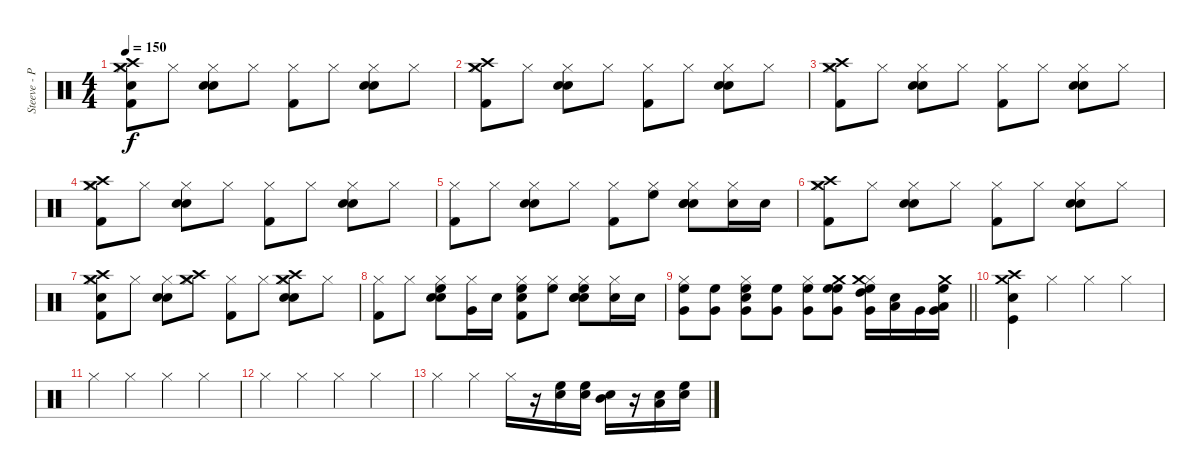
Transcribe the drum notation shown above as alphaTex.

\track ("Steeve - Percussions" "Steeve - P") {instrument percussion}
\staff {score}
\articulation defaults
\ts (4 4)
\tempo 150
\clef neutral
\ks c
("Hi-Hat (closed)" "Kick (hit) 2" "Crash high (hit)" "Snare (hit) 2" "Crash medium (hit)").8{dy f} "Hi-Hat (closed)".8 ("Hi-Hat (closed)" "Snare (hit) 2" "Electric Snare (hit)").8 "Hi-Hat (closed)".8 ("Hi-Hat (closed)" "Kick (hit) 2").8 "Hi-Hat (closed)".8 ("Hi-Hat (closed)" "Snare (hit) 2" "Electric Snare (hit)").8 "Hi-Hat (closed)".8 |
("Hi-Hat (closed)" "Kick (hit) 2" "Crash medium (hit)" "Crash high (hit)").8 "Hi-Hat (closed)".8 ("Hi-Hat (closed)" "Snare (hit) 2" "Electric Snare (hit)").8 "Hi-Hat (closed)".8 ("Hi-Hat (closed)" "Kick (hit) 2").8 "Hi-Hat (closed)".8 ("Hi-Hat (closed)" "Snare (hit) 2" "Electric Snare (hit)").8 "Hi-Hat (closed)".8 |
("Hi-Hat (closed)" "Kick (hit) 2" "Crash medium (hit)" "Crash high (hit)").8 "Hi-Hat (closed)".8 ("Hi-Hat (closed)" "Snare (hit) 2" "Electric Snare (hit)").8 "Hi-Hat (closed)".8 ("Hi-Hat (closed)" "Kick (hit) 2").8 "Hi-Hat (closed)".8 ("Hi-Hat (closed)" "Snare (hit) 2" "Electric Snare (hit)").8 "Hi-Hat (closed)".8 |
("Hi-Hat (closed)" "Kick (hit) 2" "Crash medium (hit)" "Crash high (hit)").8 "Hi-Hat (closed)".8 ("Hi-Hat (closed)" "Snare (hit) 2" "Electric Snare (hit)").8 "Hi-Hat (closed)".8 ("Hi-Hat (closed)" "Kick (hit) 2").8 "Hi-Hat (closed)".8 ("Hi-Hat (closed)" "Snare (hit) 2" "Electric Snare (hit)").8 "Hi-Hat (closed)".8 |
("Hi-Hat (closed)" "Kick (hit) 2").8 "Hi-Hat (closed)".8 ("Hi-Hat (closed)" "Snare (hit) 2" "Electric Snare (hit)").8 "Hi-Hat (closed)".8 ("Hi-Hat (closed)" "Kick (hit) 2").8 ("Hi-Hat (closed)" "High Floor Tom (hit)").8 ("Hi-Hat (closed)" "Snare (hit) 2" "Electric Snare (hit)" "Snare (hit) 2").8 ("Hi-Hat (closed)" "Snare (hit) 2").16 "Snare (hit) 2".16 |
("Hi-Hat (closed)" "Kick (hit) 2" "Crash medium (hit)" "Crash high (hit)").8 "Hi-Hat (closed)".8 ("Hi-Hat (closed)" "Snare (hit) 2" "Electric Snare (hit)").8 "Hi-Hat (closed)".8 ("Hi-Hat (closed)" "Kick (hit) 2").8 "Hi-Hat (closed)".8 ("Hi-Hat (closed)" "Snare (hit) 2" "Electric Snare (hit)").8 "Hi-Hat (closed)".8 |
("Hi-Hat (closed)" "Kick (hit) 2" "Crash high (hit)" "Snare (hit) 2" "Crash medium (hit)").8 "Hi-Hat (closed)".8 ("Hi-Hat (closed)" "Snare (hit) 2" "Electric Snare (hit)").8 ("Hi-Hat (closed)" "Crash high (hit)" "Crash medium (hit)").8 ("Hi-Hat (closed)" "Kick (hit) 2").8 "Hi-Hat (closed)".8 ("Hi-Hat (closed)" "Snare (hit) 2" "Electric Snare (hit)" "Crash high (hit)" "Crash medium (hit)").8 "Hi-Hat (closed)".8 |
("Hi-Hat (closed)" "Kick (hit) 2").8 "Hi-Hat (closed)".8 ("Hi-Hat (closed)" "Snare (hit) 2" "Electric Snare (hit)" "High Floor Tom (hit)").8 ("Hi-Hat (closed)" "Very Low Tom (hit)").16 "Snare (hit) 2".16 ("Hi-Hat (closed)" "Kick (hit) 2" "Snare (hit) 2" "High Floor Tom (hit)").8 ("Hi-Hat (closed)" "High Floor Tom (hit)").8 ("Hi-Hat (closed)" "Snare (hit) 2" "Electric Snare (hit)" "Snare (hit) 2" "High Floor Tom (hit)").8 ("Hi-Hat (closed)" "Snare (hit) 2").16 "Snare (hit) 2".16 |
\barLineRight lightlight
("Hi-Hat (closed)" "High Floor Tom (hit)" "Very Low Tom (hit)").8 ("High Floor Tom (hit)" "Very Low Tom (hit)").8 ("Hi-Hat (closed)" "High Floor Tom (hit)" "Snare (hit) 2" "Very Low Tom (hit)").8 ("High Floor Tom (hit)" "Very Low Tom (hit)").8 ("Hi-Hat (closed)" "High Floor Tom (hit)" "Very Low Tom (hit)").8 ("High Floor Tom (hit)" "High Floor Tom (hit)" "Very Low Tom (hit)" "Crash medium (hit)").8 ("Hi-Hat (closed)" "High Floor Tom (hit)" "High Tom (hit)" "Very Low Tom (hit)" "Crash medium (hit)").16 ("Low Tom (hit)" "Snare (hit) 2").16 "Very Low Tom (hit)".16 ("High Floor Tom (hit)" "Low Tom (hit)" "Very Low Tom (hit)" "Crash medium (hit)").16 |
("Snare (hit) 2" "Kick (hit)" "Crash medium (hit)" "Crash high (hit)").4 "Hi-Hat (closed)".4 "Hi-Hat (closed)".4 "Hi-Hat (closed)".4 |
"Hi-Hat (closed)".4 "Hi-Hat (closed)".4 "Hi-Hat (closed)".4 "Hi-Hat (closed)".4 |
"Hi-Hat (closed)".4 "Hi-Hat (closed)".4 "Hi-Hat (closed)".4 "Hi-Hat (closed)".4 |
"Hi-Hat (closed)".4 "Hi-Hat (closed)".4 "Hi-Hat (closed)".16 r.16 ("High Floor Tom (hit)" "Snare (hit) 2").16 ("High Floor Tom (hit)" "Snare (hit) 2").16 ("Mid Tom (hit)" "Snare (hit) 2").16 r.16 ("Low Tom (hit)" "Snare (hit) 2").16 ("High Floor Tom (hit)" "Snare (hit) 2").16
